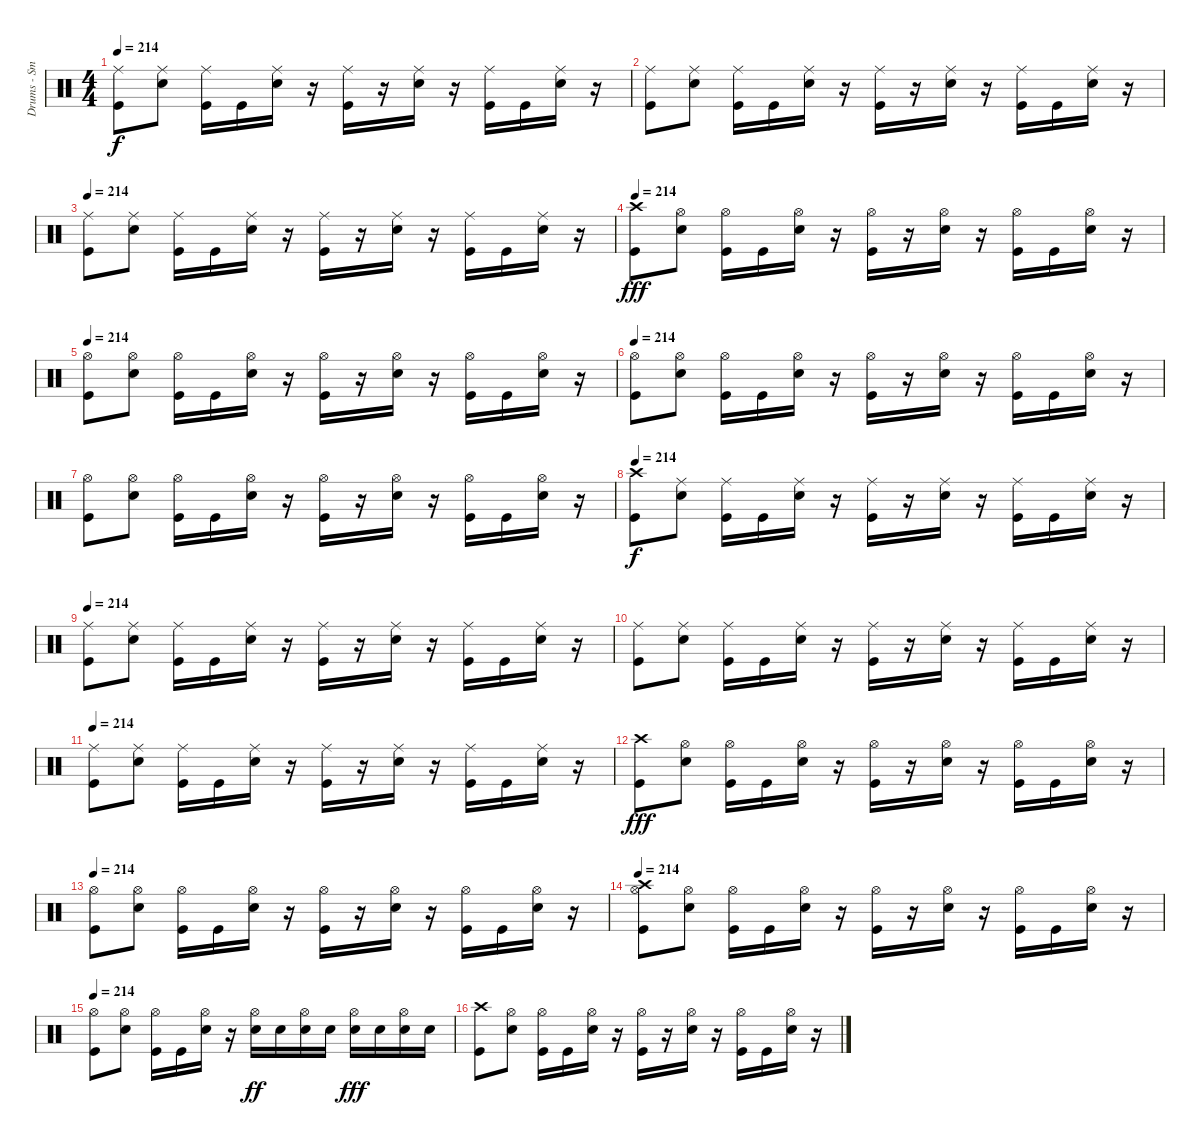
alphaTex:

\track ("Drums - Smelly" "Drums - Sm") {instrument percussion}
\staff {score}
\articulation defaults
\ts (4 4)
\tempo 214
\clef neutral
\ks c
("Ride (middle)" "Kick (hit)").8{dy f} ("Ride (middle)" "Snare (hit) 2").8 ("Kick (hit)" "Ride (middle)").16 "Kick (hit)".16 ("Ride (middle)" "Snare (hit) 2").16 r.16 ("Ride (middle)" "Kick (hit)").16 r.16 ("Snare (hit) 2" "Ride (middle)").16 r.16 ("Ride (middle)" "Kick (hit)").16 "Kick (hit)".16 ("Ride (middle)" "Snare (hit) 2").16 r.16 |
("Kick (hit)" "Ride (middle)").8 ("Ride (middle)" "Snare (hit) 2").8 ("Kick (hit)" "Ride (middle)").16 "Kick (hit)".16 ("Snare (hit) 2" "Ride (middle)").16 r.16 ("Kick (hit)" "Ride (middle)").16 r.16 ("Ride (middle)" "Snare (hit) 2").16 r.16 ("Kick (hit)" "Ride (middle)").16 "Kick (hit)".16 ("Snare (hit) 2" "Ride (middle)").16 r.16 |
\tempo 214
("Ride (middle)" "Kick (hit)").8 ("Snare (hit) 2" "Ride (middle)").8 ("Kick (hit)" "Ride (middle)").16 "Kick (hit)".16 ("Snare (hit) 2" "Ride (middle)").16 r.16 ("Ride (middle)" "Kick (hit)").16 r.16 ("Snare (hit) 2" "Ride (middle)").16 r.16 ("Kick (hit)" "Ride (middle)").16 "Kick (hit)".16 ("Snare (hit) 2" "Ride (middle)").16 r.16 |
\tempo 214
("Crash high (hit)" "Kick (hit)").8{dy fff} ("Electric Snare (hit)" "Hi-Hat (open)").8 ("Kick (hit)" "Hi-Hat (open)").16 "Kick (hit)".16 ("Electric Snare (hit)" "Hi-Hat (open)").16 r.16 ("Kick (hit)" "Hi-Hat (open)").16 r.16 ("Electric Snare (hit)" "Hi-Hat (open)").16 r.16 ("Kick (hit)" "Hi-Hat (open)").16 "Kick (hit)".16 ("Electric Snare (hit)" "Hi-Hat (open)").16 r.16 |
\tempo 214
("Kick (hit)" "Hi-Hat (open)").8 ("Electric Snare (hit)" "Hi-Hat (open)").8 ("Kick (hit)" "Hi-Hat (open)").16 "Kick (hit)".16 ("Electric Snare (hit)" "Hi-Hat (open)").16 r.16 ("Kick (hit)" "Hi-Hat (open)").16 r.16 ("Electric Snare (hit)" "Hi-Hat (open)").16 r.16 ("Kick (hit)" "Hi-Hat (open)").16 "Kick (hit)".16 ("Electric Snare (hit)" "Hi-Hat (open)").16 r.16 |
\tempo 214
("Kick (hit)" "Hi-Hat (open)").8 ("Electric Snare (hit)" "Hi-Hat (open)").8 ("Kick (hit)" "Hi-Hat (open)").16 "Kick (hit)".16 ("Electric Snare (hit)" "Hi-Hat (open)").16 r.16 ("Kick (hit)" "Hi-Hat (open)").16 r.16 ("Electric Snare (hit)" "Hi-Hat (open)").16 r.16 ("Kick (hit)" "Hi-Hat (open)").16 "Kick (hit)".16 ("Electric Snare (hit)" "Hi-Hat (open)").16 r.16 |
("Kick (hit)" "Hi-Hat (open)").8 ("Electric Snare (hit)" "Hi-Hat (open)").8 ("Kick (hit)" "Hi-Hat (open)").16 "Kick (hit)".16 ("Electric Snare (hit)" "Hi-Hat (open)").16 r.16 ("Kick (hit)" "Hi-Hat (open)").16 r.16 ("Electric Snare (hit)" "Hi-Hat (open)").16 r.16 ("Kick (hit)" "Hi-Hat (open)").16 "Kick (hit)".16 ("Electric Snare (hit)" "Hi-Hat (open)").16 r.16 |
\tempo 214
("Kick (hit)" "Crash high (hit)").8{dy f} ("Snare (hit) 2" "Ride (middle)").8 ("Kick (hit)" "Ride (middle)").16 "Kick (hit)".16 ("Ride (middle)" "Snare (hit) 2").16 r.16 ("Kick (hit)" "Ride (middle)").16 r.16 ("Ride (middle)" "Snare (hit) 2").16 r.16 ("Ride (middle)" "Kick (hit)").16 "Kick (hit)".16 ("Ride (middle)" "Snare (hit) 2").16 r.16 |
\tempo 214
("Ride (middle)" "Kick (hit)").8 ("Ride (middle)" "Snare (hit) 2").8 ("Kick (hit)" "Ride (middle)").16 "Kick (hit)".16 ("Snare (hit) 2" "Ride (middle)").16 r.16 ("Ride (middle)" "Kick (hit)").16 r.16 ("Ride (middle)" "Snare (hit) 2").16 r.16 ("Kick (hit)" "Ride (middle)").16 "Kick (hit)".16 ("Snare (hit) 2" "Ride (middle)").16 r.16 |
("Kick (hit)" "Ride (middle)").8 ("Ride (middle)" "Snare (hit) 2").8 ("Kick (hit)" "Ride (middle)").16 "Kick (hit)".16 ("Snare (hit) 2" "Ride (middle)").16 r.16 ("Kick (hit)" "Ride (middle)").16 r.16 ("Ride (middle)" "Snare (hit) 2").16 r.16 ("Kick (hit)" "Ride (middle)").16 "Kick (hit)".16 ("Snare (hit) 2" "Ride (middle)").16 r.16 |
\tempo 214
("Ride (middle)" "Kick (hit)").8 ("Snare (hit) 2" "Ride (middle)").8 ("Kick (hit)" "Ride (middle)").16 "Kick (hit)".16 ("Ride (middle)" "Snare (hit) 2").16 r.16 ("Kick (hit)" "Ride (middle)").16 r.16 ("Ride (middle)" "Snare (hit) 2").16 r.16 ("Ride (middle)" "Kick (hit)").16 "Kick (hit)".16 ("Ride (middle)" "Snare (hit) 2").16 r.16 |
("Kick (hit)" "Crash high (hit)").8{dy fff} ("Electric Snare (hit)" "Hi-Hat (open)").8 ("Kick (hit)" "Hi-Hat (open)").16 "Kick (hit)".16 ("Electric Snare (hit)" "Hi-Hat (open)").16 r.16 ("Kick (hit)" "Hi-Hat (open)").16 r.16 ("Electric Snare (hit)" "Hi-Hat (open)").16 r.16 ("Kick (hit)" "Hi-Hat (open)").16 "Kick (hit)".16 ("Electric Snare (hit)" "Hi-Hat (open)").16 r.16 |
\tempo 214
("Kick (hit)" "Hi-Hat (open)").8 ("Electric Snare (hit)" "Hi-Hat (open)").8 ("Kick (hit)" "Hi-Hat (open)").16 "Kick (hit)".16 ("Electric Snare (hit)" "Hi-Hat (open)").16 r.16 ("Kick (hit)" "Hi-Hat (open)").16 r.16 ("Electric Snare (hit)" "Hi-Hat (open)").16 r.16 ("Kick (hit)" "Hi-Hat (open)").16 "Kick (hit)".16 ("Electric Snare (hit)" "Hi-Hat (open)").16 r.16 |
\tempo 214
("Kick (hit)" "Crash high (hit)" "Hi-Hat (open)").8 ("Electric Snare (hit)" "Hi-Hat (open)").8 ("Kick (hit)" "Hi-Hat (open)").16 "Kick (hit)".16 ("Electric Snare (hit)" "Hi-Hat (open)").16 r.16 ("Kick (hit)" "Hi-Hat (open)").16 r.16 ("Electric Snare (hit)" "Hi-Hat (open)").16 r.16 ("Kick (hit)" "Hi-Hat (open)").16 "Kick (hit)".16 ("Electric Snare (hit)" "Hi-Hat (open)").16 r.16 |
\tempo 214
("Kick (hit)" "Hi-Hat (open)").8 ("Electric Snare (hit)" "Hi-Hat (open)").8 ("Kick (hit)" "Hi-Hat (open)").16 "Kick (hit)".16 ("Electric Snare (hit)" "Hi-Hat (open)").16 r.16 ("Electric Snare (hit)" "Hi-Hat (open)").16{dy ff} "Electric Snare (hit)".16 ("Electric Snare (hit)" "Hi-Hat (open)").16 "Electric Snare (hit)".16 ("Electric Snare (hit)" "Hi-Hat (open)").16{dy fff} "Electric Snare (hit)".16 ("Electric Snare (hit)" "Hi-Hat (open)").16 "Electric Snare (hit)".16 |
("Crash high (hit)" "Kick (hit)").8 ("Electric Snare (hit)" "Hi-Hat (open)").8 ("Kick (hit)" "Hi-Hat (open)").16 "Kick (hit)".16 ("Electric Snare (hit)" "Hi-Hat (open)").16 r.16 ("Kick (hit)" "Hi-Hat (open)").16 r.16 ("Electric Snare (hit)" "Hi-Hat (open)").16 r.16 ("Kick (hit)" "Hi-Hat (open)").16 "Kick (hit)".16 ("Electric Snare (hit)" "Hi-Hat (open)").16 r.16
